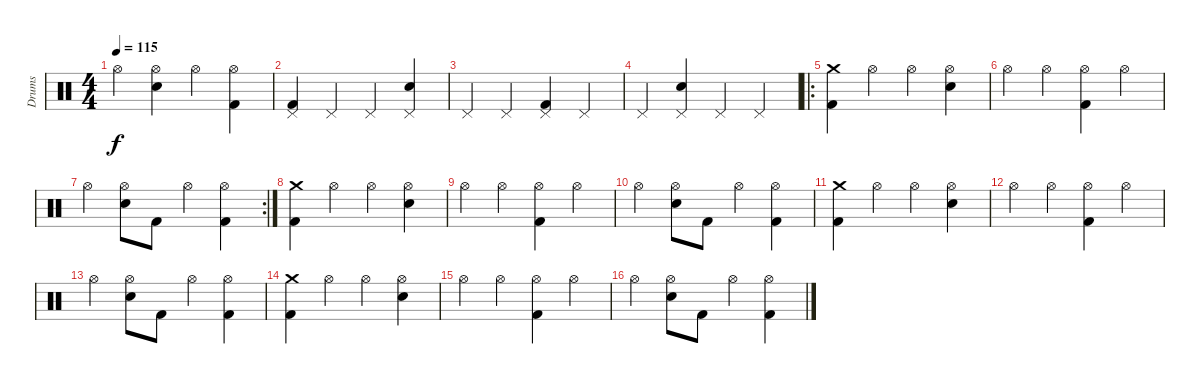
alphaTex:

\track ("Drums" "Drums") {instrument percussion}
\staff {score}
\articulation defaults
\ts (4 4)
\tempo 115
\clef neutral
\ks c "Hi-Hat (open)".4{dy f}
("Hi-Hat (open)" "Electric Snare (hit)").4 "Hi-Hat (open)".4 ("Hi-Hat (open)" "Kick (hit) 2").4 |
("Pedal Hi-Hat (hit)" "Kick (hit) 2").4 "Pedal Hi-Hat (hit)".4 "Pedal Hi-Hat (hit)".4 ("Pedal Hi-Hat (hit)" "Electric Snare (hit)").4 |
"Pedal Hi-Hat (hit)".4 "Pedal Hi-Hat (hit)".4 ("Pedal Hi-Hat (hit)" "Kick (hit) 2").4 "Pedal Hi-Hat (hit)".4 |
"Pedal Hi-Hat (hit)".4 ("Pedal Hi-Hat (hit)" "Electric Snare (hit)").4 "Pedal Hi-Hat (hit)".4 "Pedal Hi-Hat (hit)".4 |
\ro
("Crash medium (hit)" "Kick (hit) 2").4 "Hi-Hat (open)".4 "Hi-Hat (open)".4 ("Hi-Hat (open)" "Electric Snare (hit)").4 |
"Hi-Hat (open)".4 "Hi-Hat (open)".4 ("Hi-Hat (open)" "Kick (hit) 2").4 "Hi-Hat (open)".4 |
\rc 2 "Hi-Hat (open)".4
("Hi-Hat (open)" "Electric Snare (hit)").8 "Kick (hit) 2".8 "Hi-Hat (open)".4 ("Hi-Hat (open)" "Kick (hit) 2").4 |
("Crash medium (hit)" "Kick (hit) 2").4 "Hi-Hat (open)".4 "Hi-Hat (open)".4 ("Hi-Hat (open)" "Electric Snare (hit)").4 |
"Hi-Hat (open)".4 "Hi-Hat (open)".4 ("Hi-Hat (open)" "Kick (hit) 2").4 "Hi-Hat (open)".4 |
"Hi-Hat (open)".4 ("Hi-Hat (open)" "Electric Snare (hit)").8 "Kick (hit) 2".8 "Hi-Hat (open)".4 ("Hi-Hat (open)" "Kick (hit) 2").4 |
("Crash medium (hit)" "Kick (hit) 2").4 "Hi-Hat (open)".4 "Hi-Hat (open)".4 ("Hi-Hat (open)" "Electric Snare (hit)").4 |
"Hi-Hat (open)".4 "Hi-Hat (open)".4 ("Hi-Hat (open)" "Kick (hit) 2").4 "Hi-Hat (open)".4 |
"Hi-Hat (open)".4 ("Hi-Hat (open)" "Electric Snare (hit)").8 "Kick (hit) 2".8 "Hi-Hat (open)".4 ("Hi-Hat (open)" "Kick (hit) 2").4 |
("Crash medium (hit)" "Kick (hit) 2").4 "Hi-Hat (open)".4 "Hi-Hat (open)".4 ("Hi-Hat (open)" "Electric Snare (hit)").4 |
"Hi-Hat (open)".4 "Hi-Hat (open)".4 ("Hi-Hat (open)" "Kick (hit) 2").4 "Hi-Hat (open)".4 |
"Hi-Hat (open)".4 ("Hi-Hat (open)" "Electric Snare (hit)").8 "Kick (hit) 2".8 "Hi-Hat (open)".4 ("Hi-Hat (open)" "Kick (hit) 2").4
